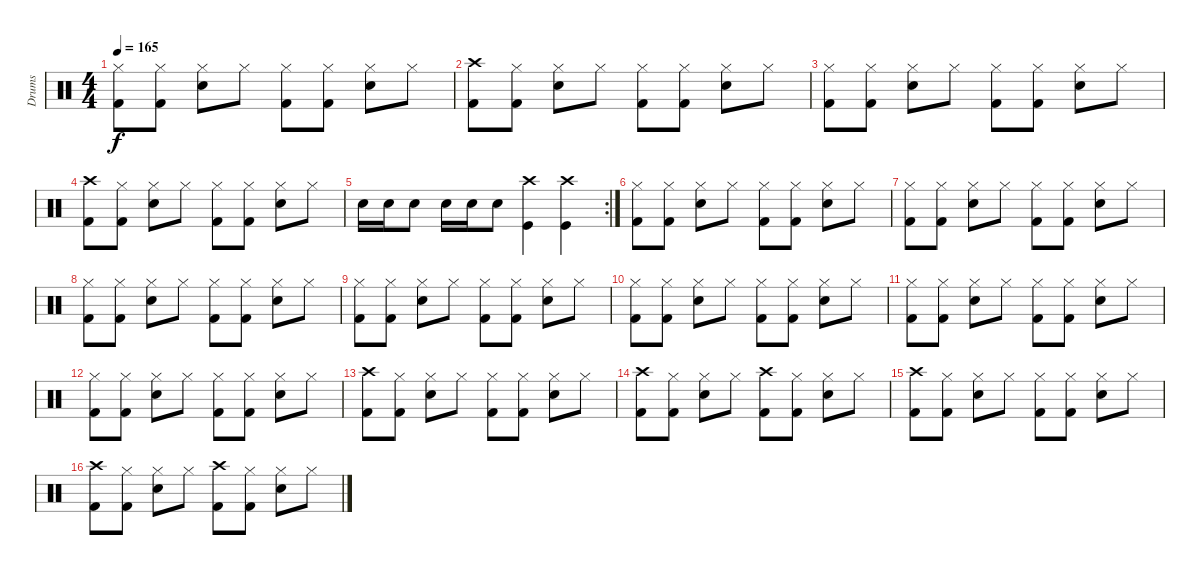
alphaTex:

\track ("Drums" "Drums") {instrument percussion}
\staff {score}
\articulation defaults
\ts (4 4)
\tempo 165
\clef neutral
\ks c
("Hi-Hat (closed)" "Kick (hit) 2").8{dy f} ("Hi-Hat (closed)" "Kick (hit) 2").8 ("Hi-Hat (closed)" "Snare (hit) 2").8 "Hi-Hat (closed)".8 ("Hi-Hat (closed)" "Kick (hit) 2").8 ("Hi-Hat (closed)" "Kick (hit) 2").8 ("Hi-Hat (closed)" "Snare (hit) 2").8 "Hi-Hat (closed)".8 |
("Crash high (hit)" "Kick (hit) 2").8 ("Hi-Hat (closed)" "Kick (hit) 2").8 ("Hi-Hat (closed)" "Snare (hit) 2").8 "Hi-Hat (closed)".8 ("Hi-Hat (closed)" "Kick (hit) 2").8 ("Hi-Hat (closed)" "Kick (hit) 2").8 ("Hi-Hat (closed)" "Snare (hit) 2").8 "Hi-Hat (closed)".8 |
("Hi-Hat (closed)" "Kick (hit) 2").8 ("Hi-Hat (closed)" "Kick (hit) 2").8 ("Hi-Hat (closed)" "Snare (hit) 2").8 "Hi-Hat (closed)".8 ("Hi-Hat (closed)" "Kick (hit) 2").8 ("Hi-Hat (closed)" "Kick (hit) 2").8 ("Hi-Hat (closed)" "Snare (hit) 2").8 "Hi-Hat (closed)".8 |
("Crash high (hit)" "Kick (hit) 2").8 ("Hi-Hat (closed)" "Kick (hit) 2").8 ("Hi-Hat (closed)" "Snare (hit) 2").8 "Hi-Hat (closed)".8 ("Hi-Hat (closed)" "Kick (hit) 2").8 ("Hi-Hat (closed)" "Kick (hit) 2").8 ("Hi-Hat (closed)" "Snare (hit) 2").8 "Hi-Hat (closed)".8 |
\rc 2 "Snare (hit) 2".16 "Snare (hit) 2".16 "Snare (hit) 2".8 "Snare (hit) 2".16 "Snare (hit) 2".16 "Snare (hit) 2".8
("Crash high (hit)" "Kick (hit)").4 ("Crash high (hit)" "Kick (hit)").4 |
("Hi-Hat (closed)" "Kick (hit) 2").8 ("Hi-Hat (closed)" "Kick (hit) 2").8 ("Hi-Hat (closed)" "Snare (hit) 2").8 "Hi-Hat (closed)".8 ("Hi-Hat (closed)" "Kick (hit) 2").8 ("Hi-Hat (closed)" "Kick (hit) 2").8 ("Hi-Hat (closed)" "Snare (hit) 2").8 "Hi-Hat (closed)".8 |
("Hi-Hat (closed)" "Kick (hit) 2").8 ("Hi-Hat (closed)" "Kick (hit) 2").8 ("Hi-Hat (closed)" "Snare (hit) 2").8 "Hi-Hat (closed)".8 ("Hi-Hat (closed)" "Kick (hit) 2").8 ("Hi-Hat (closed)" "Kick (hit) 2").8 ("Hi-Hat (closed)" "Snare (hit) 2").8 "Hi-Hat (closed)".8 |
("Hi-Hat (closed)" "Kick (hit) 2").8 ("Hi-Hat (closed)" "Kick (hit) 2").8 ("Hi-Hat (closed)" "Snare (hit) 2").8 "Hi-Hat (closed)".8 ("Hi-Hat (closed)" "Kick (hit) 2").8 ("Hi-Hat (closed)" "Kick (hit) 2").8 ("Hi-Hat (closed)" "Snare (hit) 2").8 "Hi-Hat (closed)".8 |
("Hi-Hat (closed)" "Kick (hit) 2").8 ("Hi-Hat (closed)" "Kick (hit) 2").8 ("Hi-Hat (closed)" "Snare (hit) 2").8 "Hi-Hat (closed)".8 ("Hi-Hat (closed)" "Kick (hit) 2").8 ("Hi-Hat (closed)" "Kick (hit) 2").8 ("Hi-Hat (closed)" "Snare (hit) 2").8 "Hi-Hat (closed)".8 |
("Hi-Hat (closed)" "Kick (hit) 2").8 ("Hi-Hat (closed)" "Kick (hit) 2").8 ("Hi-Hat (closed)" "Snare (hit) 2").8 "Hi-Hat (closed)".8 ("Hi-Hat (closed)" "Kick (hit) 2").8 ("Hi-Hat (closed)" "Kick (hit) 2").8 ("Hi-Hat (closed)" "Snare (hit) 2").8 "Hi-Hat (closed)".8 |
("Hi-Hat (closed)" "Kick (hit) 2").8 ("Hi-Hat (closed)" "Kick (hit) 2").8 ("Hi-Hat (closed)" "Snare (hit) 2").8 "Hi-Hat (closed)".8 ("Hi-Hat (closed)" "Kick (hit) 2").8 ("Hi-Hat (closed)" "Kick (hit) 2").8 ("Hi-Hat (closed)" "Snare (hit) 2").8 "Hi-Hat (closed)".8 |
("Hi-Hat (closed)" "Kick (hit) 2").8 ("Hi-Hat (closed)" "Kick (hit) 2").8 ("Hi-Hat (closed)" "Snare (hit) 2").8 "Hi-Hat (closed)".8 ("Hi-Hat (closed)" "Kick (hit) 2").8 ("Hi-Hat (closed)" "Kick (hit) 2").8 ("Hi-Hat (closed)" "Snare (hit) 2").8 "Hi-Hat (closed)".8 |
("Crash high (hit)" "Kick (hit) 2").8 ("Hi-Hat (closed)" "Kick (hit) 2").8 ("Hi-Hat (closed)" "Snare (hit) 2").8 "Hi-Hat (closed)".8 ("Hi-Hat (closed)" "Kick (hit) 2").8 ("Hi-Hat (closed)" "Kick (hit) 2").8 ("Hi-Hat (closed)" "Snare (hit) 2").8 "Hi-Hat (closed)".8 |
("Crash high (hit)" "Kick (hit) 2").8 ("Hi-Hat (closed)" "Kick (hit) 2").8 ("Hi-Hat (closed)" "Snare (hit) 2").8 "Hi-Hat (closed)".8 ("Crash high (hit)" "Kick (hit) 2").8 ("Hi-Hat (closed)" "Kick (hit) 2").8 ("Hi-Hat (closed)" "Snare (hit) 2").8 "Hi-Hat (closed)".8 |
("Crash high (hit)" "Kick (hit) 2").8 ("Hi-Hat (closed)" "Kick (hit) 2").8 ("Hi-Hat (closed)" "Snare (hit) 2").8 "Hi-Hat (closed)".8 ("Hi-Hat (closed)" "Kick (hit) 2").8 ("Hi-Hat (closed)" "Kick (hit) 2").8 ("Hi-Hat (closed)" "Snare (hit) 2").8 "Hi-Hat (closed)".8 |
("Crash high (hit)" "Kick (hit) 2").8 ("Hi-Hat (closed)" "Kick (hit) 2").8 ("Hi-Hat (closed)" "Snare (hit) 2").8 "Hi-Hat (closed)".8 ("Crash high (hit)" "Kick (hit) 2").8 ("Hi-Hat (closed)" "Kick (hit) 2").8 ("Hi-Hat (closed)" "Snare (hit) 2").8 "Hi-Hat (closed)".8
